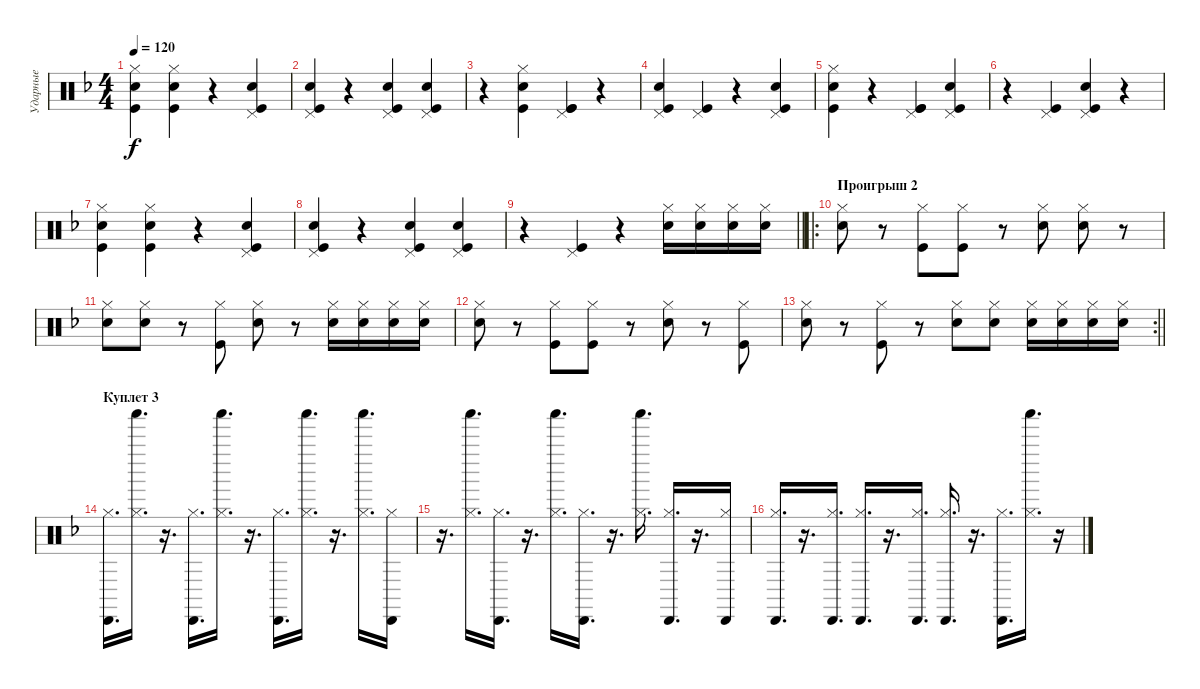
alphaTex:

\track ("Ударные" "Ударные") {instrument percussion}
\staff {score}
\articulation defaults
\ts (4 4)
\tempo 120
\clef neutral
\ks f
("Kick (hit)" "Snare (hit) 2" "Hi-Hat (closed)").4{dy f} ("Kick (hit)" "Snare (hit) 2" "Hi-Hat (closed)").4 r.4 ("Kick (hit)" "Snare (hit) 2" "Pedal Hi-Hat (hit)").4 |
("Kick (hit)" "Snare (hit) 2" "Pedal Hi-Hat (hit)").4 r.4 ("Kick (hit)" "Snare (hit) 2" "Pedal Hi-Hat (hit)").4 ("Kick (hit)" "Snare (hit) 2" "Pedal Hi-Hat (hit)").4 |
r.4 ("Kick (hit)" "Snare (hit) 2" "Hi-Hat (closed)").4 ("Kick (hit)" "Kick (hit)" "Pedal Hi-Hat (hit)").4 r.4 |
("Kick (hit)" "Snare (hit) 2" "Pedal Hi-Hat (hit)").4 ("Kick (hit)" "Pedal Hi-Hat (hit)").4 r.4 ("Kick (hit)" "Snare (hit) 2" "Pedal Hi-Hat (hit)").4 |
("Kick (hit)" "Snare (hit) 2" "Hi-Hat (closed)").4 r.4 ("Kick (hit)" "Kick (hit)" "Pedal Hi-Hat (hit)").4 ("Kick (hit)" "Snare (hit) 2" "Pedal Hi-Hat (hit)").4 |
r.4 ("Kick (hit)" "Pedal Hi-Hat (hit)").4 ("Kick (hit)" "Snare (hit) 2" "Pedal Hi-Hat (hit)").4 r.4 |
("Kick (hit)" "Snare (hit) 2" "Hi-Hat (closed)").4 ("Kick (hit)" "Snare (hit) 2" "Hi-Hat (closed)").4 r.4 ("Kick (hit)" "Snare (hit) 2" "Pedal Hi-Hat (hit)").4 |
("Kick (hit)" "Snare (hit) 2" "Pedal Hi-Hat (hit)").4 r.4 ("Kick (hit)" "Snare (hit) 2" "Pedal Hi-Hat (hit)").4 ("Kick (hit)" "Snare (hit) 2" "Pedal Hi-Hat (hit)").4 |
\barLineRight lightlight
r.4 ("Kick (hit)" "Pedal Hi-Hat (hit)").4 r.4 ("Snare (hit) 2" "Hi-Hat (closed)").16 ("Snare (hit) 2" "Hi-Hat (closed)").16 ("Snare (hit) 2" "Hi-Hat (closed)").16 ("Snare (hit) 2" "Hi-Hat (closed)").16 |
\ro
\section ("" "Проигрыш 2")
("Hi-Hat (closed)" "Snare (hit) 2").8 r.8 ("Hi-Hat (closed)" "Kick (hit)").8 ("Hi-Hat (closed)" "Kick (hit)").8 r.8 ("Hi-Hat (closed)" "Snare (hit) 2").8 ("Hi-Hat (closed)" "Snare (hit) 2").8 r.8 |
("Hi-Hat (closed)" "Snare (hit) 2").8 ("Hi-Hat (closed)" "Snare (hit) 2").8 r.8 ("Hi-Hat (closed)" "Kick (hit)").8 ("Hi-Hat (closed)" "Snare (hit) 2").8 r.8 ("Snare (hit) 2" "Hi-Hat (closed)").16 ("Snare (hit) 2" "Hi-Hat (closed)").16 ("Snare (hit) 2" "Hi-Hat (closed)").16 ("Snare (hit) 2" "Hi-Hat (closed)").16 |
("Hi-Hat (closed)" "Snare (hit) 2").8 r.8 ("Hi-Hat (closed)" "Kick (hit)").8 ("Hi-Hat (closed)" "Kick (hit)").8 r.8 ("Hi-Hat (closed)" "Snare (hit) 2").8 r.8 ("Hi-Hat (closed)" "Kick (hit)").8 |
\rc 2
\barLineRight lightlight
("Hi-Hat (closed)" "Snare (hit) 2").8 r.8 ("Hi-Hat (closed)" "Kick (hit)").8 r.8 ("Hi-Hat (closed)" "Snare (hit) 2").8 ("Hi-Hat (closed)" "Snare (hit) 2").8 ("Hi-Hat (closed)" "Snare (hit) 2").16 ("Hi-Hat (closed)" "Snare (hit) 2").16 ("Hi-Hat (closed)" "Snare (hit) 2").16 ("Hi-Hat (closed)" "Snare (hit) 2").16 |
\section ("" "Куплет 3")
("Hi-Hat (closed)" "Cabasa (hit)").16{d volume 6} ("Hi-Hat (closed)" "Shaker (hit)").16{d} r.16{d} ("Hi-Hat (closed)" "Cabasa (hit)").16{d} ("Hi-Hat (closed)" "Shaker (hit)").16{d} r.16{d} ("Hi-Hat (closed)" "Cabasa (hit)").16{d} ("Hi-Hat (closed)" "Shaker (hit)").16{d} r.16{d} ("Hi-Hat (closed)" "Shaker (hit)").16{d} ("Hi-Hat (closed)" "Cabasa (hit)").16 |
r.16{d} ("Hi-Hat (closed)" "Shaker (hit)").16{d} ("Hi-Hat (closed)" "Cabasa (hit)").16{d} r.16{d} ("Hi-Hat (closed)" "Shaker (hit)").16{d} ("Hi-Hat (closed)" "Cabasa (hit)").16{d} r.16{d} ("Hi-Hat (closed)" "Shaker (hit)").16{d} ("Hi-Hat (closed)" "Cabasa (hit)").16{d} r.16{d} ("Hi-Hat (closed)" "Cabasa (hit)").16 |
("Hi-Hat (closed)" "Cabasa (hit)").16{d} r.16{d} ("Hi-Hat (closed)" "Cabasa (hit)").16{d} ("Hi-Hat (closed)" "Cabasa (hit)").16{d} r.16{d} ("Hi-Hat (closed)" "Cabasa (hit)").16{d} ("Hi-Hat (closed)" "Cabasa (hit)").16{d} r.16{d} ("Hi-Hat (closed)" "Cabasa (hit)").16{d} ("Hi-Hat (closed)" "Shaker (hit)").16{d} r.16
